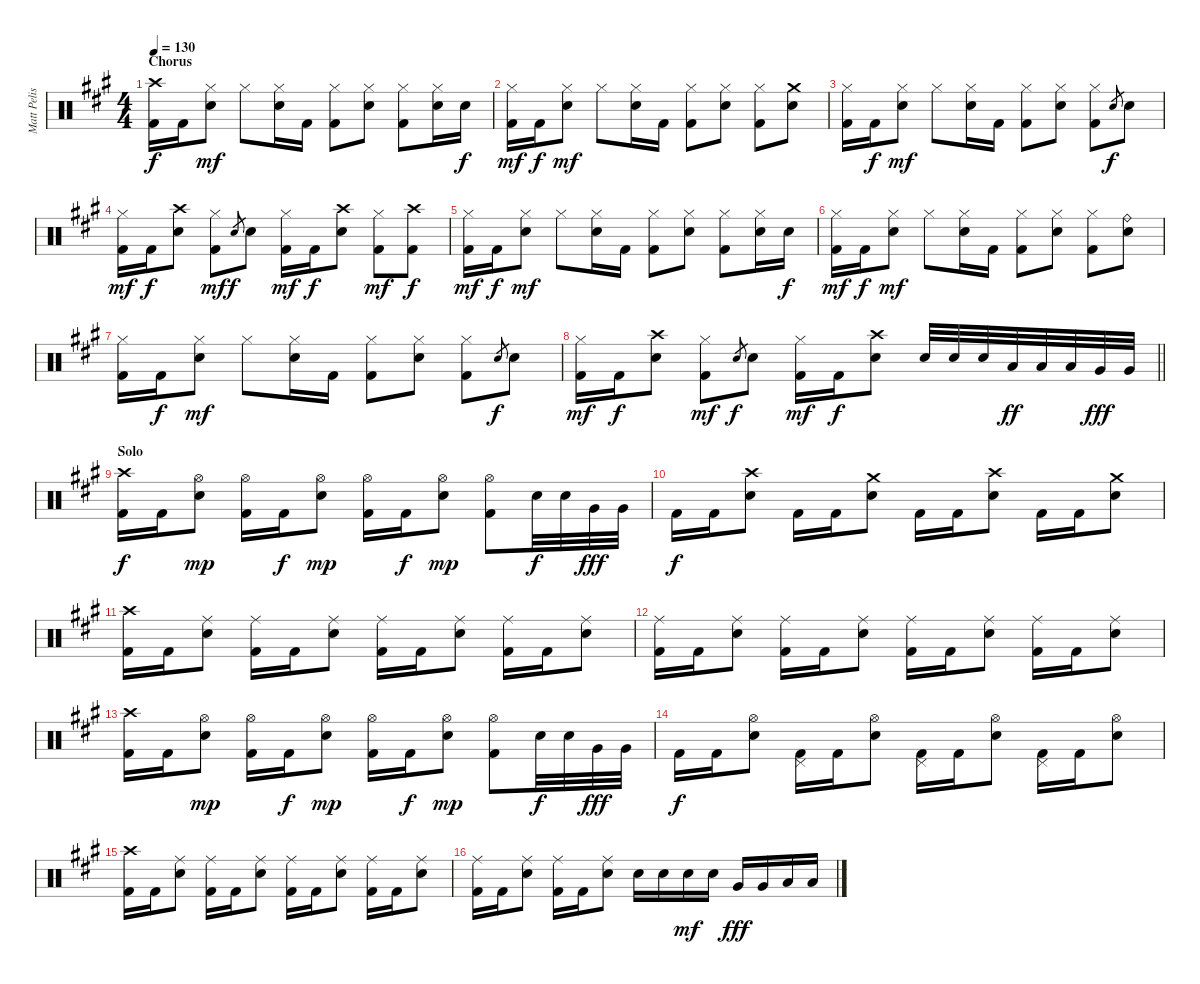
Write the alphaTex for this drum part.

\track ("Matt Pelissier" "Matt Pelis") {instrument percussion}
\staff {score}
\articulation defaults
\ts (4 4)
\section ("" "Chorus")
\tempo 130
\clef neutral
\ks a
("Crash high (hit)" "Kick (hit) 2").16{dy f} "Kick (hit) 2".16 ("Hi-Hat (closed)" "Snare (hit) 2").8{dy mf} "Hi-Hat (closed)".8 ("Hi-Hat (closed)" "Snare (hit) 2").16 "Kick (hit) 2".16 ("Hi-Hat (closed)" "Kick (hit) 2").8 ("Hi-Hat (closed)" "Snare (hit) 2").8 ("Hi-Hat (closed)" "Kick (hit) 2").8 ("Hi-Hat (closed)" "Snare (hit) 2").16 "Snare (hit) 2".16{dy f} |
("Hi-Hat (closed)" "Kick (hit) 2").16{dy mf} "Kick (hit) 2".16{dy f} ("Hi-Hat (closed)" "Snare (hit) 2").8{dy mf} "Hi-Hat (closed)".8 ("Hi-Hat (closed)" "Snare (hit) 2").16 "Kick (hit) 2".16 ("Hi-Hat (closed)" "Kick (hit) 2").8 ("Hi-Hat (closed)" "Snare (hit) 2").8 ("Hi-Hat (closed)" "Kick (hit) 2").8 ("Crash medium (hit)" "Snare (hit) 2").8 |
("Hi-Hat (closed)" "Kick (hit) 2").16 "Kick (hit) 2".16{dy f} ("Hi-Hat (closed)" "Snare (hit) 2").8{dy mf} "Hi-Hat (closed)".8 ("Hi-Hat (closed)" "Snare (hit) 2").16 "Kick (hit) 2".16 ("Hi-Hat (closed)" "Kick (hit) 2").8 ("Hi-Hat (closed)" "Snare (hit) 2").8 ("Hi-Hat (closed)" "Kick (hit) 2").8 "Snare (hit) 2".8{gr dy f} "Snare (hit) 2".8 |
("Hi-Hat (closed)" "Kick (hit) 2").16{dy mf} "Kick (hit) 2".16{dy f} ("Crash high (hit)" "Snare (hit) 2").8 ("Hi-Hat (closed)" "Kick (hit) 2").8{dy mf} "Snare (hit) 2".8{gr dy f} "Snare (hit) 2".8 ("Hi-Hat (closed)" "Kick (hit) 2").16{dy mf} "Kick (hit) 2".16{dy f} ("Crash high (hit)" "Snare (hit) 2").8 ("Hi-Hat (closed)" "Kick (hit) 2").8{dy mf} ("Crash high (hit)" "Kick (hit) 2").8{dy f} |
("Hi-Hat (closed)" "Kick (hit) 2").16{dy mf} "Kick (hit) 2".16{dy f} ("Hi-Hat (closed)" "Snare (hit) 2").8{dy mf} "Hi-Hat (closed)".8 ("Hi-Hat (closed)" "Snare (hit) 2").16 "Kick (hit) 2".16 ("Hi-Hat (closed)" "Kick (hit) 2").8 ("Hi-Hat (closed)" "Snare (hit) 2").8 ("Hi-Hat (closed)" "Kick (hit) 2").8 ("Hi-Hat (closed)" "Snare (hit) 2").16 "Snare (hit) 2".16{dy f} |
("Hi-Hat (closed)" "Kick (hit) 2").16{dy mf} "Kick (hit) 2".16{dy f} ("Hi-Hat (closed)" "Snare (hit) 2").8{dy mf} "Hi-Hat (closed)".8 ("Hi-Hat (closed)" "Snare (hit) 2").16 "Kick (hit) 2".16 ("Hi-Hat (closed)" "Kick (hit) 2").8 ("Hi-Hat (closed)" "Snare (hit) 2").8 ("Hi-Hat (closed)" "Kick (hit) 2").8 ("Ride (bell)" "Snare (hit) 2").8 |
("Hi-Hat (closed)" "Kick (hit) 2").16 "Kick (hit) 2".16{dy f} ("Hi-Hat (closed)" "Snare (hit) 2").8{dy mf} "Hi-Hat (closed)".8 ("Hi-Hat (closed)" "Snare (hit) 2").16 "Kick (hit) 2".16 ("Hi-Hat (closed)" "Kick (hit) 2").8 ("Hi-Hat (closed)" "Snare (hit) 2").8 ("Hi-Hat (closed)" "Kick (hit) 2").8 "Snare (hit) 2".8{gr dy f} "Snare (hit) 2".8 |
\barLineRight lightlight
("Hi-Hat (closed)" "Kick (hit) 2").16{dy mf} "Kick (hit) 2".16{dy f} ("Crash high (hit)" "Snare (hit) 2").8 ("Hi-Hat (closed)" "Kick (hit) 2").8{dy mf} "Snare (hit) 2".8{gr dy f} "Snare (hit) 2".8 ("Hi-Hat (closed)" "Kick (hit) 2").16{dy mf} "Kick (hit) 2".16{dy f} ("Crash high (hit)" "Snare (hit) 2").8 "Snare (hit) 2".32 "Snare (hit) 2".32 "Snare (hit) 2".32 "Low Tom (hit)".32{dy ff} "Low Tom (hit)".32 "Low Tom (hit)".32 "Very Low Tom (hit)".32{dy fff} "Very Low Tom (hit)".32 |
\section ("" "Solo")
("Crash high (hit)" "Kick (hit) 2").16{dy f} "Kick (hit) 2".16 ("Hi-Hat (open)" "Snare (hit) 2").8{dy mp} ("Hi-Hat (open)" "Kick (hit) 2").16 "Kick (hit) 2".16{dy f} ("Hi-Hat (open)" "Snare (hit) 2").8{dy mp} ("Hi-Hat (open)" "Kick (hit) 2").16 "Kick (hit) 2".16{dy f} ("Hi-Hat (open)" "Snare (hit) 2").8{dy mp} ("Hi-Hat (open)" "Kick (hit) 2").8 "Snare (hit) 2".32{dy f} "Snare (hit) 2".32 "Very Low Tom (hit)".32{dy fff} "Very Low Tom (hit)".32 |
"Kick (hit) 2".16{dy f} "Kick (hit) 2".16 ("Crash high (hit)" "Snare (hit) 2").8 "Kick (hit) 2".16 "Kick (hit) 2".16 ("Crash medium (hit)" "Snare (hit) 2").8 "Kick (hit) 2".16 "Kick (hit) 2".16 ("Crash high (hit)" "Snare (hit) 2").8 "Kick (hit) 2".16 "Kick (hit) 2".16 ("Crash medium (hit)" "Snare (hit) 2").8 |
("Crash high (hit)" "Kick (hit) 2").16 "Kick (hit) 2".16 ("Ride (middle)" "Snare (hit) 2").8 ("Ride (middle)" "Kick (hit) 2").16 "Kick (hit) 2".16 ("Ride (middle)" "Snare (hit) 2").8 ("Ride (middle)" "Kick (hit) 2").16 "Kick (hit) 2".16 ("Ride (middle)" "Snare (hit) 2").8 ("Ride (middle)" "Kick (hit) 2").16 "Kick (hit) 2".16 ("Ride (middle)" "Snare (hit) 2").8 |
("Ride (middle)" "Kick (hit) 2").16 "Kick (hit) 2".16 ("Ride (middle)" "Snare (hit) 2").8 ("Ride (middle)" "Kick (hit) 2").16 "Kick (hit) 2".16 ("Ride (middle)" "Snare (hit) 2").8 ("Ride (middle)" "Kick (hit) 2").16 "Kick (hit) 2".16 ("Ride (middle)" "Snare (hit) 2").8 ("Ride (middle)" "Kick (hit) 2").16 "Kick (hit) 2".16 ("Ride (middle)" "Snare (hit) 2").8 |
("Crash high (hit)" "Kick (hit) 2").16 "Kick (hit) 2".16 ("Hi-Hat (open)" "Snare (hit) 2").8{dy mp} ("Hi-Hat (open)" "Kick (hit) 2").16 "Kick (hit) 2".16{dy f} ("Hi-Hat (open)" "Snare (hit) 2").8{dy mp} ("Hi-Hat (open)" "Kick (hit) 2").16 "Kick (hit) 2".16{dy f} ("Hi-Hat (open)" "Snare (hit) 2").8{dy mp} ("Hi-Hat (open)" "Kick (hit) 2").8 "Snare (hit) 2".32{dy f} "Snare (hit) 2".32 "Very Low Tom (hit)".32{dy fff} "Very Low Tom (hit)".32 |
"Kick (hit) 2".16{dy f} "Kick (hit) 2".16 ("Hi-Hat (open)" "Snare (hit) 2").8 ("Pedal Hi-Hat (hit)" "Kick (hit) 2").16 "Kick (hit) 2".16 ("Hi-Hat (open)" "Snare (hit) 2").8 ("Pedal Hi-Hat (hit)" "Kick (hit) 2").16 "Kick (hit) 2".16 ("Hi-Hat (open)" "Snare (hit) 2").8 ("Pedal Hi-Hat (hit)" "Kick (hit) 2").16 "Kick (hit) 2".16 ("Hi-Hat (open)" "Snare (hit) 2").8 |
("Crash high (hit)" "Kick (hit) 2").16 "Kick (hit) 2".16 ("Ride (middle)" "Snare (hit) 2").8 ("Ride (middle)" "Kick (hit) 2").16 "Kick (hit) 2".16 ("Ride (middle)" "Snare (hit) 2").8 ("Ride (middle)" "Kick (hit) 2").16 "Kick (hit) 2".16 ("Ride (middle)" "Snare (hit) 2").8 ("Ride (middle)" "Kick (hit) 2").16 "Kick (hit) 2".16 ("Ride (middle)" "Snare (hit) 2").8 |
("Ride (middle)" "Kick (hit) 2").16 "Kick (hit) 2".16 ("Ride (middle)" "Snare (hit) 2").8 ("Ride (middle)" "Kick (hit) 2").16 "Kick (hit) 2".16 ("Ride (middle)" "Snare (hit) 2").8 "Snare (hit) 2".16 "Snare (hit) 2".16 "Snare (hit) 2".16{dy mf} "Snare (hit) 2".16 "Very Low Tom (hit)".16{dy fff} "Very Low Tom (hit)".16 "Low Floor Tom (hit)".16 "Low Floor Tom (hit)".16
